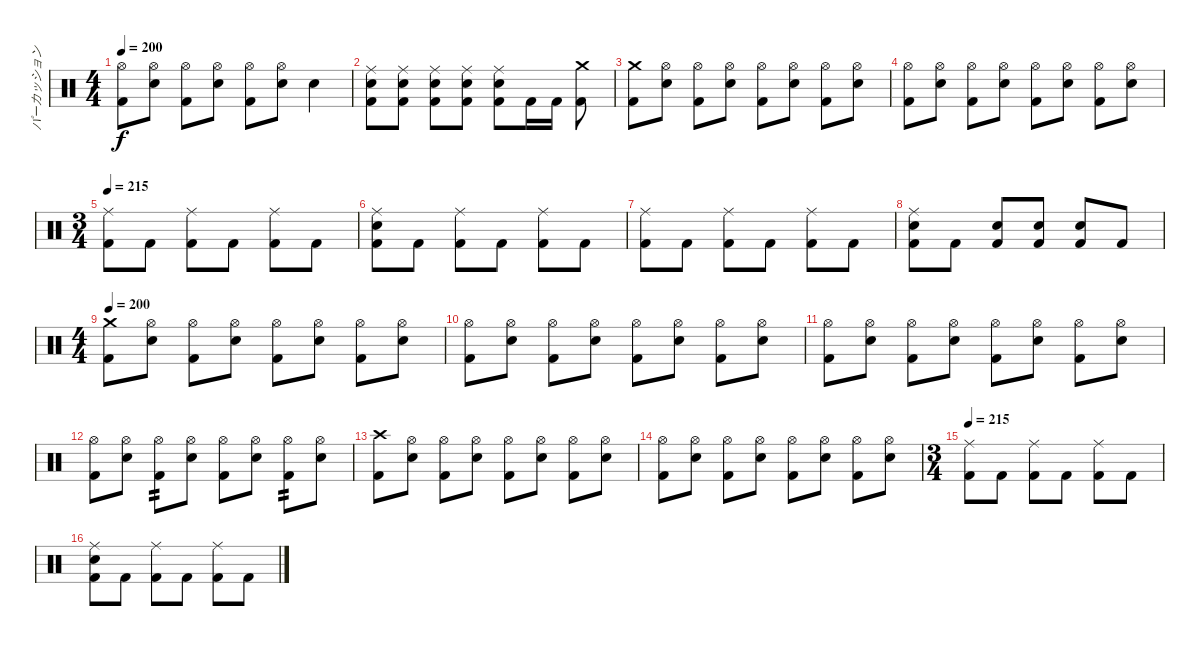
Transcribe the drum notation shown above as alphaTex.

\track ("パーカッション" "パーカッション") {instrument percussion}
\staff {score}
\articulation defaults
\ts (4 4)
\tempo 200
\clef neutral
\ks c
("Hi-Hat (open)" "Kick (hit) 2").8{dy f} ("Hi-Hat (open)" "Snare (hit) 2").8 ("Hi-Hat (open)" "Kick (hit) 2").8 ("Hi-Hat (open)" "Snare (hit) 2").8 ("Hi-Hat (open)" "Kick (hit) 2").8 ("Hi-Hat (open)" "Snare (hit) 2").8 "Snare (hit) 2".4 |
("Kick (hit) 2" "Ride (middle)" "Snare (hit) 2").8 ("Kick (hit) 2" "Ride (middle)" "Snare (hit) 2").8 ("Kick (hit) 2" "Ride (middle)" "Snare (hit) 2").8 ("Kick (hit) 2" "Ride (middle)" "Snare (hit) 2").8 ("Kick (hit) 2" "Ride (middle)" "Snare (hit) 2").8 "Kick (hit) 2".16 "Kick (hit) 2".16 ("Crash medium (hit)" "Kick (hit) 2").8 |
("Crash medium (hit)" "Kick (hit) 2").8 ("Hi-Hat (open)" "Snare (hit) 2").8 ("Hi-Hat (open)" "Kick (hit) 2").8 ("Hi-Hat (open)" "Snare (hit) 2").8 ("Hi-Hat (open)" "Kick (hit) 2").8 ("Hi-Hat (open)" "Snare (hit) 2").8 ("Hi-Hat (open)" "Kick (hit) 2").8 ("Hi-Hat (open)" "Snare (hit) 2").8 |
("Hi-Hat (open)" "Kick (hit) 2").8 ("Hi-Hat (open)" "Snare (hit) 2").8 ("Hi-Hat (open)" "Kick (hit) 2").8 ("Hi-Hat (open)" "Snare (hit) 2").8 ("Hi-Hat (open)" "Kick (hit) 2").8 ("Hi-Hat (open)" "Snare (hit) 2").8 ("Hi-Hat (open)" "Kick (hit) 2").8 ("Hi-Hat (open)" "Snare (hit) 2").8 |
\ts (3 4)
\tempo 215
("Ride (middle)" "Kick (hit) 2").8 "Kick (hit) 2".8 ("Ride (middle)" "Kick (hit) 2").8 "Kick (hit) 2".8 ("Ride (middle)" "Kick (hit) 2").8 "Kick (hit) 2".8 |
("Snare (hit) 2" "Ride (middle)" "Kick (hit) 2").8 "Kick (hit) 2".8 ("Ride (middle)" "Kick (hit) 2").8 "Kick (hit) 2".8 ("Ride (middle)" "Kick (hit) 2").8 "Kick (hit) 2".8 |
("Ride (middle)" "Kick (hit) 2").8 "Kick (hit) 2".8 ("Ride (middle)" "Kick (hit) 2").8 "Kick (hit) 2".8 ("Ride (middle)" "Kick (hit) 2").8 "Kick (hit) 2".8 |
("Snare (hit) 2" "Ride (middle)" "Kick (hit) 2").8 "Kick (hit) 2".8 ("Snare (hit) 2" "Kick (hit) 2").8 ("Snare (hit) 2" "Kick (hit) 2").8 ("Snare (hit) 2" "Kick (hit) 2").8 "Kick (hit) 2".8 |
\ts (4 4)
\tempo 200
("Crash medium (hit)" "Kick (hit) 2").8 ("Hi-Hat (open)" "Snare (hit) 2").8 ("Hi-Hat (open)" "Kick (hit) 2").8 ("Hi-Hat (open)" "Snare (hit) 2").8 ("Hi-Hat (open)" "Kick (hit) 2").8 ("Hi-Hat (open)" "Snare (hit) 2").8 ("Hi-Hat (open)" "Kick (hit) 2").8 ("Hi-Hat (open)" "Snare (hit) 2").8 |
("Hi-Hat (open)" "Kick (hit) 2").8 ("Hi-Hat (open)" "Snare (hit) 2").8 ("Hi-Hat (open)" "Kick (hit) 2").8 ("Hi-Hat (open)" "Snare (hit) 2").8 ("Hi-Hat (open)" "Kick (hit) 2").8 ("Hi-Hat (open)" "Snare (hit) 2").8 ("Hi-Hat (open)" "Kick (hit) 2").8 ("Hi-Hat (open)" "Snare (hit) 2").8 |
("Hi-Hat (open)" "Kick (hit) 2").8 ("Hi-Hat (open)" "Snare (hit) 2").8 ("Hi-Hat (open)" "Kick (hit) 2").8 ("Hi-Hat (open)" "Snare (hit) 2").8 ("Hi-Hat (open)" "Kick (hit) 2").8 ("Hi-Hat (open)" "Snare (hit) 2").8 ("Hi-Hat (open)" "Kick (hit) 2").8 ("Hi-Hat (open)" "Snare (hit) 2").8 |
("Hi-Hat (open)" "Kick (hit) 2").8 ("Hi-Hat (open)" "Snare (hit) 2").8 ("Hi-Hat (open)" "Kick (hit) 2").8{tp 2} ("Hi-Hat (open)" "Snare (hit) 2").8 ("Hi-Hat (open)" "Kick (hit) 2").8 ("Hi-Hat (open)" "Snare (hit) 2").8 ("Hi-Hat (open)" "Kick (hit) 2").8{tp 2} ("Hi-Hat (open)" "Snare (hit) 2").8 |
("Crash high (hit)" "Kick (hit) 2").8 ("Hi-Hat (open)" "Snare (hit) 2").8 ("Hi-Hat (open)" "Kick (hit) 2").8 ("Hi-Hat (open)" "Snare (hit) 2").8 ("Hi-Hat (open)" "Kick (hit) 2").8 ("Hi-Hat (open)" "Snare (hit) 2").8 ("Hi-Hat (open)" "Kick (hit) 2").8 ("Hi-Hat (open)" "Snare (hit) 2").8 |
("Hi-Hat (open)" "Kick (hit) 2").8 ("Hi-Hat (open)" "Snare (hit) 2").8 ("Hi-Hat (open)" "Kick (hit) 2").8 ("Hi-Hat (open)" "Snare (hit) 2").8 ("Hi-Hat (open)" "Kick (hit) 2").8 ("Hi-Hat (open)" "Snare (hit) 2").8 ("Hi-Hat (open)" "Kick (hit) 2").8 ("Hi-Hat (open)" "Snare (hit) 2").8 |
\ts (3 4)
\tempo 215
("Ride (middle)" "Kick (hit) 2").8 "Kick (hit) 2".8 ("Ride (middle)" "Kick (hit) 2").8 "Kick (hit) 2".8 ("Ride (middle)" "Kick (hit) 2").8 "Kick (hit) 2".8 |
("Snare (hit) 2" "Ride (middle)" "Kick (hit) 2").8 "Kick (hit) 2".8 ("Ride (middle)" "Kick (hit) 2").8 "Kick (hit) 2".8 ("Ride (middle)" "Kick (hit) 2").8 "Kick (hit) 2".8
